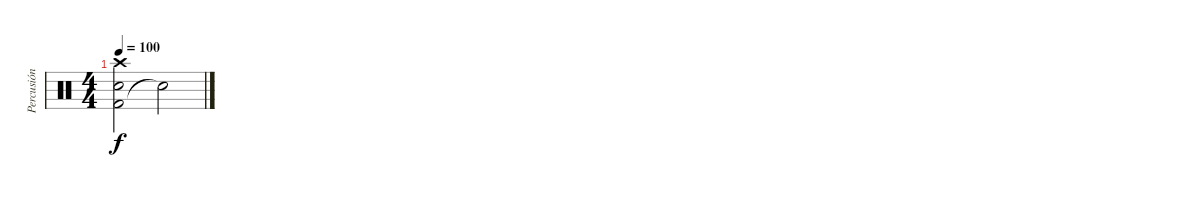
\track ("Percusión" "Percusión") {instrument percussion}
\staff {score}
\articulation defaults
\ts (4 4)
\tempo 100
\clef neutral
\ks c
("Kick (hit) 2" "Snare (hit) 2" "Crash high (hit)").2{dy f} "Snare (hit)"{t}.2
